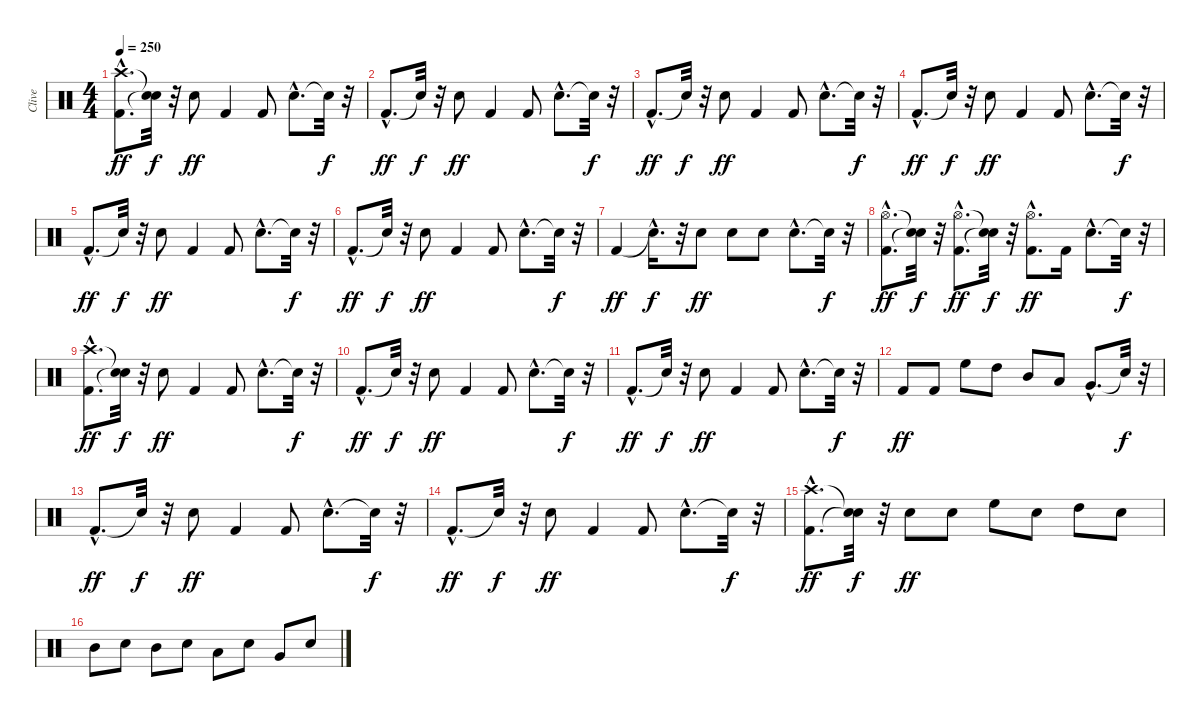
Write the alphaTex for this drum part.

\track ("Clive" "Clive") {instrument percussion}
\staff {score}
\articulation defaults
\ts (4 4)
\tempo 250
\clef neutral
\ks c
("Kick (hit) 2"{hac} "Crash high (hit)"{hac}).8{d dy ff} ("Snare (hit)"{t} "Snare (hit)"{t}).32{dy f} r.32 "Snare (hit) 2".8{dy ff} "Kick (hit) 2".4 "Kick (hit) 2".8 "Snare (hit) 2"{hac}.8{d} "Snare (hit)"{t}.32{dy f} r.32 |
"Kick (hit) 2"{hac}.8{d dy ff} "Snare (hit)"{t}.32{dy f} r.32 "Snare (hit) 2".8{dy ff} "Kick (hit) 2".4 "Kick (hit) 2".8 "Snare (hit) 2"{hac}.8{d} "Snare (hit)"{t}.32{dy f} r.32 |
"Kick (hit) 2"{hac}.8{d dy ff} "Snare (hit)"{t}.32{dy f} r.32 "Snare (hit) 2".8{dy ff} "Kick (hit) 2".4 "Kick (hit) 2".8 "Snare (hit) 2"{hac}.8{d} "Snare (hit)"{t}.32{dy f} r.32 |
"Kick (hit) 2"{hac}.8{d dy ff} "Snare (hit)"{t}.32{dy f} r.32 "Snare (hit) 2".8{dy ff} "Kick (hit) 2".4 "Kick (hit) 2".8 "Snare (hit) 2"{hac}.8{d} "Snare (hit)"{t}.32{dy f} r.32 |
"Kick (hit) 2"{hac}.8{d dy ff} "Snare (hit)"{t}.32{dy f} r.32 "Snare (hit) 2".8{dy ff} "Kick (hit) 2".4 "Kick (hit) 2".8 "Snare (hit) 2"{hac}.8{d} "Snare (hit)"{t}.32{dy f} r.32 |
"Kick (hit) 2"{hac}.8{d dy ff} "Snare (hit)"{t}.32{dy f} r.32 "Snare (hit) 2".8{dy ff} "Kick (hit) 2".4 "Kick (hit) 2".8 "Snare (hit) 2"{hac}.8{d} "Snare (hit)"{t}.32{dy f} r.32 |
"Kick (hit) 2".4{dy ff} "Snare (hit)"{hac t}.16{d dy f} r.32 "Snare (hit) 2".8{dy ff} "Snare (hit) 2".8 "Snare (hit) 2".8 "Snare (hit) 2"{hac}.8{d} "Snare (hit)"{t}.32{dy f} r.32 |
("Kick (hit) 2"{hac} "Hi-Hat (open)"{hac}).8{d dy ff} ("Snare (hit)"{t} "Snare (hit)"{t}).32{dy f} r.32 ("Kick (hit) 2"{hac} "Hi-Hat (open)"{hac}).8{d dy ff} ("Snare (hit)"{t} "Snare (hit)"{t}).32{dy f} r.32 ("Kick (hit) 2"{hac} "Hi-Hat (open)"{hac}).8{d dy ff} "Kick (hit) 2".16 "Snare (hit) 2"{hac}.8{d} "Snare (hit)"{t}.32{dy f} r.32 |
("Kick (hit) 2"{hac} "Crash high (hit)"{hac}).8{d dy ff} ("Snare (hit)"{t} "Snare (hit)"{t}).32{dy f} r.32 "Snare (hit) 2".8{dy ff} "Kick (hit) 2".4 "Kick (hit) 2".8 "Snare (hit) 2"{hac}.8{d} "Snare (hit)"{t}.32{dy f} r.32 |
"Kick (hit) 2"{hac}.8{d dy ff} "Snare (hit)"{t}.32{dy f} r.32 "Snare (hit) 2".8{dy ff} "Kick (hit) 2".4 "Kick (hit) 2".8 "Snare (hit) 2"{hac}.8{d} "Snare (hit)"{t}.32{dy f} r.32 |
"Kick (hit) 2"{hac}.8{d dy ff} "Snare (hit)"{t}.32{dy f} r.32 "Snare (hit) 2".8{dy ff} "Kick (hit) 2".4 "Kick (hit) 2".8 "Snare (hit) 2"{hac}.8{d} "Snare (hit)"{t}.32{dy f} r.32 |
"Kick (hit) 2".8{dy ff} "Kick (hit) 2".8 "High Floor Tom (hit)".8 "High Tom (hit)".8 "Mid Tom (hit)".8 "Low Tom (hit)".8 "Very Low Tom (hit)"{hac}.8{d} "Snare (hit)"{t}.32{dy f} r.32 |
"Kick (hit) 2"{hac}.8{d dy ff} "Snare (hit)"{t}.32{dy f} r.32 "Snare (hit) 2".8{dy ff} "Kick (hit) 2".4 "Kick (hit) 2".8 "Snare (hit) 2"{hac}.8{d} "Snare (hit)"{t}.32{dy f} r.32 |
"Kick (hit) 2"{hac}.8{d dy ff} "Snare (hit)"{t}.32{dy f} r.32 "Snare (hit) 2".8{dy ff} "Kick (hit) 2".4 "Kick (hit) 2".8 "Snare (hit) 2"{hac}.8{d} "Snare (hit)"{t}.32{dy f} r.32 |
("Kick (hit) 2"{hac} "Crash high (hit)"{hac}).8{d dy ff} ("Snare (hit)"{t} "Snare (hit)"{t}).32{dy f} r.32 "Snare (hit) 2".8{dy ff} "Snare (hit) 2".8 "High Floor Tom (hit)".8 "Snare (hit) 2".8 "High Tom (hit)".8 "Snare (hit) 2".8 |
"Mid Tom (hit)".8 "Snare (hit) 2".8 "Mid Tom (hit)".8 "Snare (hit) 2".8 "Low Tom (hit)".8 "Snare (hit) 2".8 "Very Low Tom (hit)".8 "Snare (hit) 2".8
